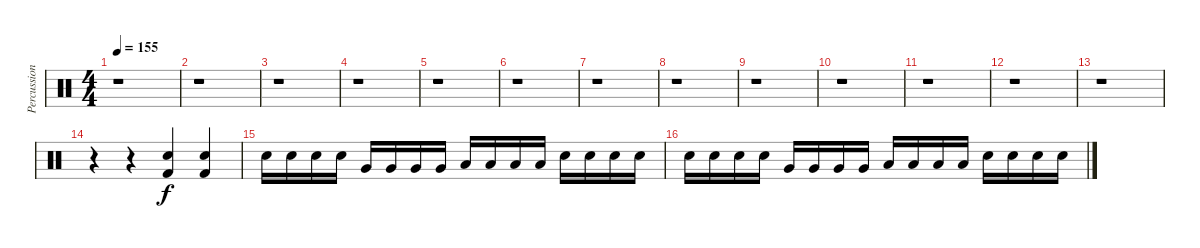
\track ("Percussions" "Percussion") {instrument percussion}
\staff {score}
\articulation defaults
\ts (4 4)
\tempo 155
\clef neutral
\ks c
r.1{dy f} |
r.1 |
r.1 |
r.1 |
r.1 |
r.1 |
r.1 |
r.1 |
r.1 |
r.1 |
r.1 |
r.1 |
r.1 |
r.4 r.4 ("Snare (hit) 2" "Kick (hit) 2").4 ("Snare (hit) 2" "Kick (hit) 2").4 |
"Snare (hit) 2".16 "Snare (hit) 2".16 "Snare (hit) 2".16 "Snare (hit) 2".16 "Very Low Tom (hit)".16 "Very Low Tom (hit)".16 "Very Low Tom (hit)".16 "Very Low Tom (hit)".16 "Low Floor Tom (hit)".16 "Low Floor Tom (hit)".16 "Low Floor Tom (hit)".16 "Low Floor Tom (hit)".16 "Snare (hit) 2".16 "Snare (hit) 2".16 "Snare (hit) 2".16 "Snare (hit) 2".16 |
"Snare (hit) 2".16 "Snare (hit) 2".16 "Snare (hit) 2".16 "Snare (hit) 2".16 "Very Low Tom (hit)".16 "Very Low Tom (hit)".16 "Very Low Tom (hit)".16 "Very Low Tom (hit)".16 "Low Floor Tom (hit)".16 "Low Floor Tom (hit)".16 "Low Floor Tom (hit)".16 "Low Floor Tom (hit)".16 "Snare (hit) 2".16 "Snare (hit) 2".16 "Snare (hit) 2".16 "Snare (hit) 2".16
